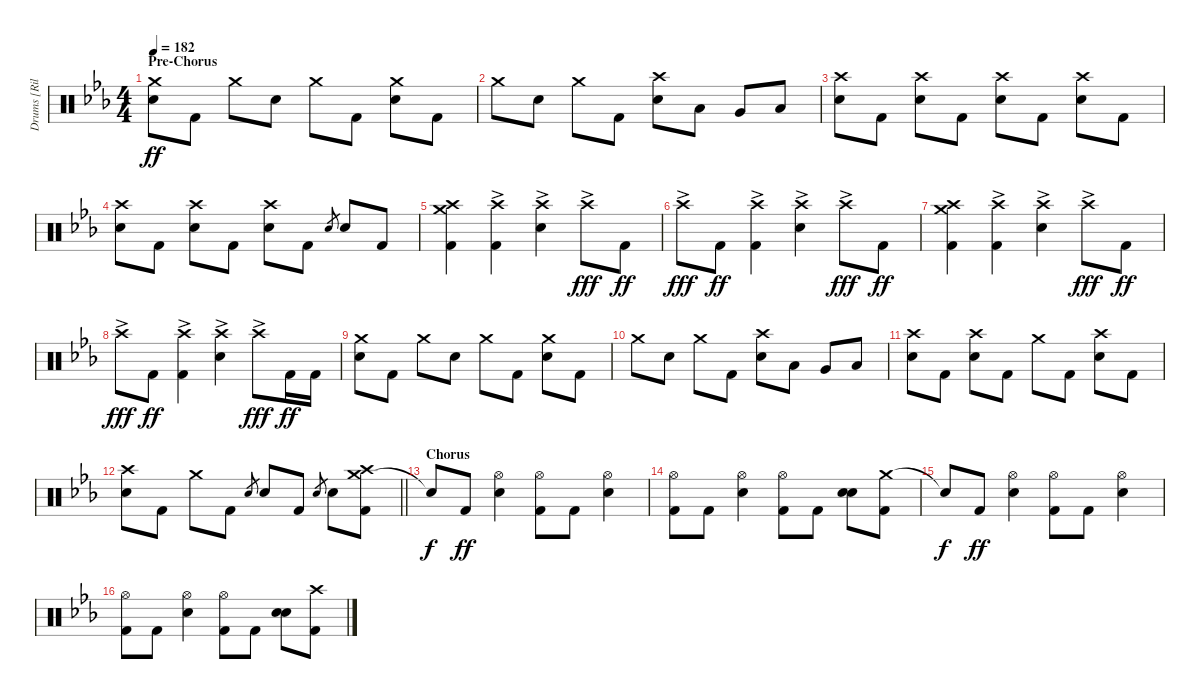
\track ("Drums [Riley]" "Drums [Ril") {instrument percussion}
\staff {score}
\articulation defaults
\ts (4 4)
\section ("" "Pre-Chorus")
\tempo 182
\clef neutral
\ks eb
("Crash medium (hit)" "Electric Snare (hit)").8{dy ff} "Kick (hit) 2".8 "Crash medium (hit)".8 "Electric Snare (hit)".8 "Crash medium (hit)".8 "Kick (hit) 2".8 ("Crash medium (hit)" "Electric Snare (hit)").8 "Kick (hit) 2".8 |
"Crash medium (hit)".8 "Electric Snare (hit)".8 "Crash medium (hit)".8 "Kick (hit) 2".8 ("Crash high (hit)" "Electric Snare (hit)").8 "Low Tom (hit)".8 "Very Low Tom (hit)".8 "Low Floor Tom (hit)".8 |
("Crash high (hit)" "Electric Snare (hit)").8 "Kick (hit) 2".8 ("Crash high (hit)" "Electric Snare (hit)").8 "Kick (hit) 2".8 ("Crash high (hit)" "Electric Snare (hit)").8 "Kick (hit) 2".8 ("Crash high (hit)" "Electric Snare (hit)").8 "Kick (hit) 2".8 |
("Crash high (hit)" "Electric Snare (hit)").8 "Kick (hit) 2".8 ("Crash high (hit)" "Electric Snare (hit)").8 "Kick (hit) 2".8 ("Crash high (hit)" "Electric Snare (hit)").8 "Kick (hit) 2".8 "Electric Snare (hit)".8{gr} "Electric Snare (hit)".8 "Kick (hit) 2".8 |
("Crash medium (hit)" "Crash high (hit)" "Kick (hit) 2").4 ("Crash high (hit)"{ac} "Kick (hit) 2").4 ("Crash high (hit)"{ac} "Electric Snare (hit)").4 "Crash high (hit)"{ac}.8{dy fff} "Kick (hit) 2".8{dy ff} |
"Crash high (hit)"{ac}.8{dy fff} "Kick (hit) 2".8{dy ff} ("Crash high (hit)"{ac} "Kick (hit) 2").4 ("Crash high (hit)"{ac} "Electric Snare (hit)").4 "Crash high (hit)"{ac}.8{dy fff} "Kick (hit) 2".8{dy ff} |
("Crash medium (hit)" "Crash high (hit)" "Kick (hit) 2").4 ("Crash high (hit)"{ac} "Kick (hit) 2").4 ("Crash high (hit)"{ac} "Electric Snare (hit)").4 "Crash high (hit)"{ac}.8{dy fff} "Kick (hit) 2".8{dy ff} |
"Crash high (hit)"{ac}.8{dy fff} "Kick (hit) 2".8{dy ff} ("Crash high (hit)"{ac} "Kick (hit) 2").4 ("Crash high (hit)"{ac} "Electric Snare (hit)").4 "Crash high (hit)"{ac}.8{dy fff} "Kick (hit) 2".16{dy ff} "Kick (hit) 2".16 |
("Crash medium (hit)" "Electric Snare (hit)").8 "Kick (hit) 2".8 "Crash medium (hit)".8 "Electric Snare (hit)".8 "Crash medium (hit)".8 "Kick (hit) 2".8 ("Crash medium (hit)" "Electric Snare (hit)").8 "Kick (hit) 2".8 |
"Crash medium (hit)".8 "Electric Snare (hit)".8 "Crash medium (hit)".8 "Kick (hit) 2".8 ("Crash high (hit)" "Electric Snare (hit)").8 "Low Tom (hit)".8 "Very Low Tom (hit)".8 "Low Floor Tom (hit)".8 |
("Crash high (hit)" "Electric Snare (hit)").8 "Kick (hit) 2".8 ("Crash high (hit)" "Electric Snare (hit)").8 "Kick (hit) 2".8 "Crash medium (hit)".8 "Kick (hit) 2".8 ("Crash high (hit)" "Electric Snare (hit)").8 "Kick (hit) 2".8 |
\barLineRight lightlight
("Crash high (hit)" "Electric Snare (hit)").8 "Kick (hit) 2".8 "Crash medium (hit)".8 "Kick (hit) 2".8 "Electric Snare (hit)".8{gr} "Electric Snare (hit)".8 "Kick (hit) 2".8 "Electric Snare (hit)".8{gr} "Electric Snare (hit)".8 ("Crash medium (hit)" "Crash high (hit)" "Kick (hit) 2").8 |
\section ("" "Chorus")
"Snare (hit)"{t}.8{dy f} "Kick (hit) 2".8{dy ff} ("Hi-Hat (open)" "Electric Snare (hit)").4 ("Hi-Hat (open)" "Kick (hit) 2").8 "Kick (hit) 2".8 ("Hi-Hat (open)" "Electric Snare (hit)").4 |
("Hi-Hat (open)" "Kick (hit) 2").8 "Kick (hit) 2".8 ("Hi-Hat (open)" "Electric Snare (hit)").4 ("Hi-Hat (open)" "Kick (hit) 2").8 "Kick (hit) 2".8 ("Electric Snare (hit)" "Electric Snare (hit)").8{bu 60} ("Crash medium (hit)" "Kick (hit) 2").8 |
"Snare (hit)"{t}.8{dy f} "Kick (hit) 2".8{dy ff} ("Hi-Hat (open)" "Electric Snare (hit)").4 ("Hi-Hat (open)" "Kick (hit) 2").8 "Kick (hit) 2".8 ("Hi-Hat (open)" "Electric Snare (hit)").4 |
("Hi-Hat (open)" "Kick (hit) 2").8 "Kick (hit) 2".8 ("Hi-Hat (open)" "Electric Snare (hit)").4 ("Hi-Hat (open)" "Kick (hit) 2").8 "Kick (hit) 2".8 ("Electric Snare (hit)" "Electric Snare (hit)").8{bu 60} ("Crash high (hit)" "Kick (hit) 2").8
